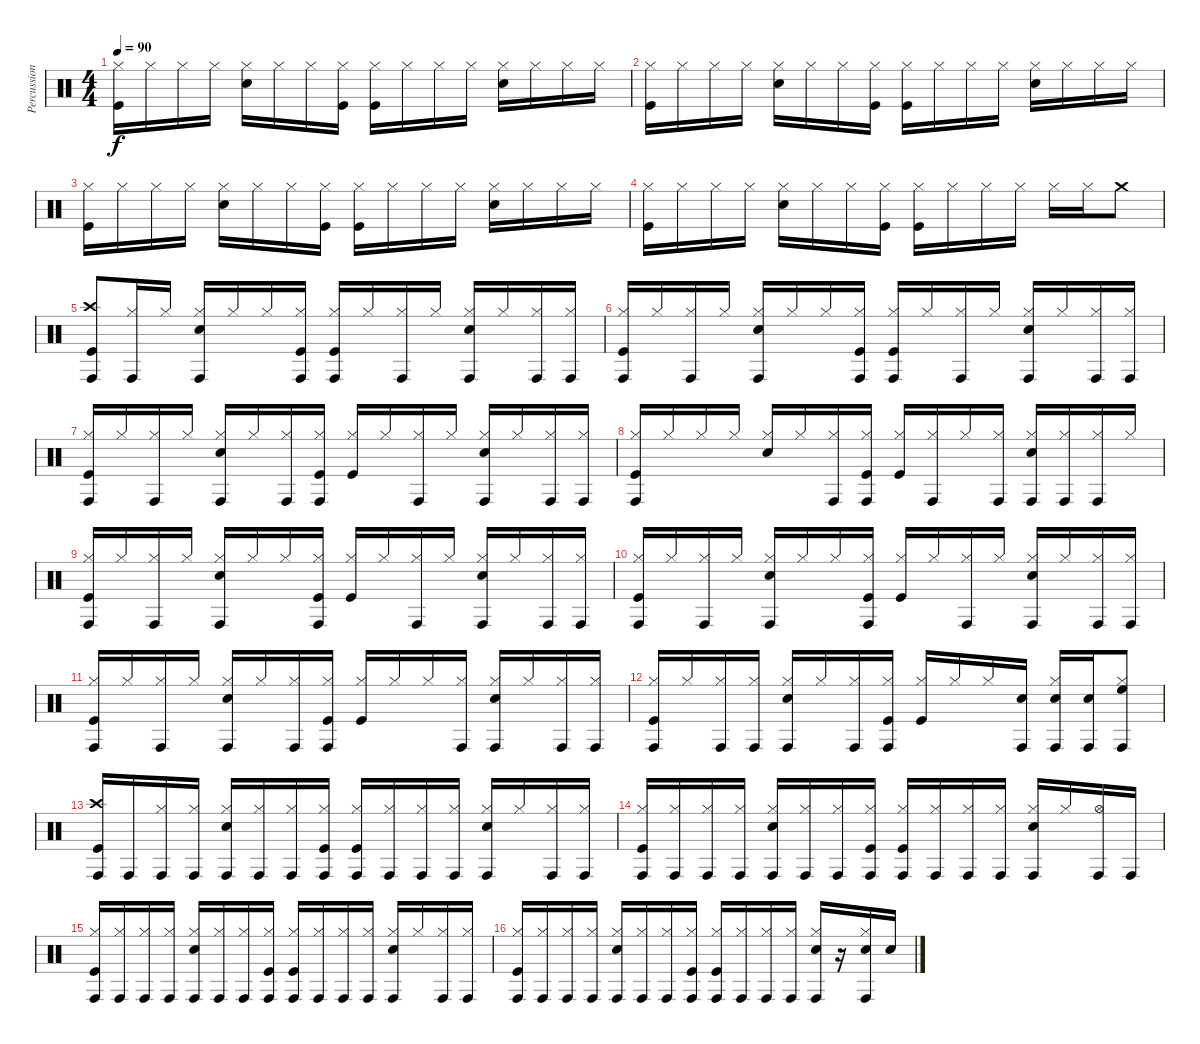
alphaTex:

\track ("Percussions" "Percussion") {instrument percussion}
\staff {score}
\articulation defaults
\ts (4 4)
\tempo 90
\clef neutral
\ks c
("Hi-Hat (closed)" "Kick (hit)").16{dy f} "Hi-Hat (closed)".16 "Hi-Hat (closed)".16 "Hi-Hat (closed)".16 ("Hi-Hat (closed)" "Electric Snare (hit)").16 "Hi-Hat (closed)".16 "Hi-Hat (closed)".16 ("Hi-Hat (closed)" "Kick (hit)").16 ("Hi-Hat (closed)" "Kick (hit)").16 "Hi-Hat (closed)".16 "Hi-Hat (closed)".16 "Hi-Hat (closed)".16 ("Hi-Hat (closed)" "Electric Snare (hit)").16 "Hi-Hat (closed)".16 "Hi-Hat (closed)".16 "Hi-Hat (closed)".16 |
("Hi-Hat (closed)" "Kick (hit)").16 "Hi-Hat (closed)".16 "Hi-Hat (closed)".16 "Hi-Hat (closed)".16 ("Hi-Hat (closed)" "Electric Snare (hit)").16 "Hi-Hat (closed)".16 "Hi-Hat (closed)".16 ("Hi-Hat (closed)" "Kick (hit)").16 ("Hi-Hat (closed)" "Kick (hit)").16 "Hi-Hat (closed)".16 "Hi-Hat (closed)".16 "Hi-Hat (closed)".16 ("Hi-Hat (closed)" "Electric Snare (hit)").16 "Hi-Hat (closed)".16 "Hi-Hat (closed)".16 "Hi-Hat (closed)".16 |
("Hi-Hat (closed)" "Kick (hit)").16 "Hi-Hat (closed)".16 "Hi-Hat (closed)".16 "Hi-Hat (closed)".16 ("Hi-Hat (closed)" "Electric Snare (hit)").16 "Hi-Hat (closed)".16 "Hi-Hat (closed)".16 ("Hi-Hat (closed)" "Kick (hit)").16 ("Hi-Hat (closed)" "Kick (hit)").16 "Hi-Hat (closed)".16 "Hi-Hat (closed)".16 "Hi-Hat (closed)".16 ("Hi-Hat (closed)" "Electric Snare (hit)").16 "Hi-Hat (closed)".16 "Hi-Hat (closed)".16 "Hi-Hat (closed)".16 |
("Hi-Hat (closed)" "Kick (hit)").16 "Hi-Hat (closed)".16 "Hi-Hat (closed)".16 "Hi-Hat (closed)".16 ("Hi-Hat (closed)" "Electric Snare (hit)").16 "Hi-Hat (closed)".16 "Hi-Hat (closed)".16 ("Hi-Hat (closed)" "Kick (hit)").16 ("Hi-Hat (closed)" "Kick (hit)").16 "Hi-Hat (closed)".16 "Hi-Hat (closed)".16 "Hi-Hat (closed)".16 "Hi-Hat (closed)".16 "Hi-Hat (closed)".16 "Crash medium (hit)".8 |
("Crash high (hit)" "Kick (hit)" "Conga high (hit)").8 ("Hi-Hat (closed)" "Conga high (hit)").16 "Hi-Hat (closed)".16 ("Hi-Hat (closed)" "Electric Snare (hit)" "Conga high (hit)").16 "Hi-Hat (closed)".16 "Hi-Hat (closed)".16 ("Hi-Hat (closed)" "Kick (hit)" "Conga high (hit)").16 ("Hi-Hat (closed)" "Kick (hit)" "Conga high (hit)").16 "Hi-Hat (closed)".16 ("Hi-Hat (closed)" "Conga high (hit)").16 "Hi-Hat (closed)".16 ("Hi-Hat (closed)" "Electric Snare (hit)" "Conga high (hit)").16 "Hi-Hat (closed)".16 ("Hi-Hat (closed)" "Conga high (hit)").16 ("Hi-Hat (closed)" "Conga high (hit)").16 |
("Hi-Hat (closed)" "Kick (hit)" "Conga high (hit)").16 "Hi-Hat (closed)".16 ("Hi-Hat (closed)" "Conga high (hit)").16 "Hi-Hat (closed)".16 ("Hi-Hat (closed)" "Electric Snare (hit)" "Conga high (hit)").16 "Hi-Hat (closed)".16 "Hi-Hat (closed)".16 ("Hi-Hat (closed)" "Kick (hit)" "Conga high (hit)").16 ("Hi-Hat (closed)" "Kick (hit)" "Conga high (hit)").16 "Hi-Hat (closed)".16 ("Hi-Hat (closed)" "Conga high (hit)").16 "Hi-Hat (closed)".16 ("Hi-Hat (closed)" "Electric Snare (hit)" "Conga high (hit)").16 "Hi-Hat (closed)".16 ("Hi-Hat (closed)" "Conga high (hit)").16 ("Hi-Hat (closed)" "Conga high (hit)").16 |
("Hi-Hat (closed)" "Kick (hit)" "Conga high (hit)").16 "Hi-Hat (closed)".16 ("Hi-Hat (closed)" "Conga high (hit)").16 "Hi-Hat (closed)".16 ("Hi-Hat (closed)" "Electric Snare (hit)" "Conga high (hit)").16 "Hi-Hat (closed)".16 ("Hi-Hat (closed)" "Conga high (hit)").16 ("Hi-Hat (closed)" "Kick (hit)" "Conga high (hit)").16 ("Hi-Hat (closed)" "Kick (hit)").16 "Hi-Hat (closed)".16 ("Hi-Hat (closed)" "Conga high (hit)").16 "Hi-Hat (closed)".16 ("Hi-Hat (closed)" "Electric Snare (hit)" "Conga high (hit)").16 "Hi-Hat (closed)".16 ("Hi-Hat (closed)" "Conga high (hit)").16 ("Hi-Hat (closed)" "Conga high (hit)").16 |
("Hi-Hat (closed)" "Kick (hit)" "Conga high (hit)").16 "Hi-Hat (closed)".16 "Hi-Hat (closed)".16 "Hi-Hat (closed)".16 ("Hi-Hat (closed)" "Electric Snare (hit)").16 "Hi-Hat (closed)".16 ("Hi-Hat (closed)" "Conga high (hit)").16 ("Hi-Hat (closed)" "Kick (hit)" "Conga high (hit)").16 ("Hi-Hat (closed)" "Kick (hit)").16 ("Hi-Hat (closed)" "Conga high (hit)").16 "Hi-Hat (closed)".16 ("Hi-Hat (closed)" "Conga high (hit)").16 ("Hi-Hat (closed)" "Electric Snare (hit)" "Conga high (hit)").16 ("Hi-Hat (closed)" "Conga high (hit)").16 ("Hi-Hat (closed)" "Conga high (hit)").16 "Hi-Hat (closed)".16 |
("Hi-Hat (closed)" "Kick (hit)" "Conga high (hit)").16 "Hi-Hat (closed)".16 ("Hi-Hat (closed)" "Conga high (hit)").16 "Hi-Hat (closed)".16 ("Hi-Hat (closed)" "Electric Snare (hit)" "Conga high (hit)").16 "Hi-Hat (closed)".16 "Hi-Hat (closed)".16 ("Hi-Hat (closed)" "Kick (hit)" "Conga high (hit)").16 ("Hi-Hat (closed)" "Kick (hit)").16 "Hi-Hat (closed)".16 ("Hi-Hat (closed)" "Conga high (hit)").16 "Hi-Hat (closed)".16 ("Hi-Hat (closed)" "Electric Snare (hit)" "Conga high (hit)").16 "Hi-Hat (closed)".16 ("Hi-Hat (closed)" "Conga high (hit)").16 ("Hi-Hat (closed)" "Conga high (hit)").16 |
("Hi-Hat (closed)" "Kick (hit)" "Conga high (hit)").16 "Hi-Hat (closed)".16 ("Hi-Hat (closed)" "Conga high (hit)").16 "Hi-Hat (closed)".16 ("Hi-Hat (closed)" "Electric Snare (hit)" "Conga high (hit)").16 "Hi-Hat (closed)".16 "Hi-Hat (closed)".16 ("Hi-Hat (closed)" "Kick (hit)" "Conga high (hit)").16 ("Hi-Hat (closed)" "Kick (hit)").16 "Hi-Hat (closed)".16 ("Hi-Hat (closed)" "Conga high (hit)").16 "Hi-Hat (closed)".16 ("Hi-Hat (closed)" "Electric Snare (hit)" "Conga high (hit)").16 "Hi-Hat (closed)".16 ("Hi-Hat (closed)" "Conga high (hit)").16 ("Hi-Hat (closed)" "Conga high (hit)").16 |
("Hi-Hat (closed)" "Kick (hit)" "Conga high (hit)").16 "Hi-Hat (closed)".16 ("Hi-Hat (closed)" "Conga high (hit)").16 "Hi-Hat (closed)".16 ("Hi-Hat (closed)" "Electric Snare (hit)" "Conga high (hit)").16 "Hi-Hat (closed)".16 ("Hi-Hat (closed)" "Conga high (hit)").16 ("Hi-Hat (closed)" "Kick (hit)" "Conga high (hit)").16 ("Hi-Hat (closed)" "Kick (hit)").16 "Hi-Hat (closed)".16 "Hi-Hat (closed)".16 ("Hi-Hat (closed)" "Conga high (hit)").16 ("Hi-Hat (closed)" "Electric Snare (hit)" "Conga high (hit)").16 "Hi-Hat (closed)".16 ("Hi-Hat (closed)" "Conga high (hit)").16 ("Hi-Hat (closed)" "Conga high (hit)").16 |
("Hi-Hat (closed)" "Kick (hit)" "Conga high (hit)").16 "Hi-Hat (closed)".16 ("Hi-Hat (closed)" "Conga high (hit)").16 ("Hi-Hat (closed)" "Conga high (hit)").16 ("Hi-Hat (closed)" "Electric Snare (hit)" "Conga high (hit)").16 "Hi-Hat (closed)".16 ("Hi-Hat (closed)" "Conga high (hit)").16 ("Hi-Hat (closed)" "Kick (hit)" "Conga high (hit)").16 ("Hi-Hat (closed)" "Kick (hit)").16 "Hi-Hat (closed)".16 "Hi-Hat (closed)".16 ("Electric Snare (hit)" "Conga high (hit)").16 ("Hi-Hat (closed)" "Electric Snare (hit)" "Conga high (hit)").16 ("Electric Snare (hit)" "Conga high (hit)").16 ("Hi-Hat (closed)" "High Floor Tom (hit)" "Conga high (hit)").8 |
("Crash high (hit)" "Kick (hit)" "Conga high (hit)").16 "Conga high (hit)".16 ("Hi-Hat (closed)" "Conga high (hit)").16 ("Hi-Hat (closed)" "Conga high (hit)").16 ("Hi-Hat (closed)" "Electric Snare (hit)" "Conga high (hit)").16 ("Hi-Hat (closed)" "Conga high (hit)").16 ("Hi-Hat (closed)" "Conga high (hit)").16 ("Hi-Hat (closed)" "Kick (hit)" "Conga high (hit)").16 ("Hi-Hat (closed)" "Kick (hit)" "Conga high (hit)").16 ("Hi-Hat (closed)" "Conga high (hit)").16 ("Hi-Hat (closed)" "Conga high (hit)").16 ("Hi-Hat (closed)" "Conga high (hit)").16 ("Hi-Hat (closed)" "Electric Snare (hit)" "Conga high (hit)").16 "Hi-Hat (closed)".16 ("Hi-Hat (closed)" "Conga high (hit)").16 ("Hi-Hat (closed)" "Conga high (hit)").16 |
("Hi-Hat (closed)" "Kick (hit)" "Conga high (hit)").16 ("Hi-Hat (closed)" "Conga high (hit)").16 ("Hi-Hat (closed)" "Conga high (hit)").16 ("Hi-Hat (closed)" "Conga high (hit)").16 ("Hi-Hat (closed)" "Electric Snare (hit)" "Conga high (hit)").16 ("Hi-Hat (closed)" "Conga high (hit)").16 ("Hi-Hat (closed)" "Conga high (hit)").16 ("Hi-Hat (closed)" "Kick (hit)" "Conga high (hit)").16 ("Hi-Hat (closed)" "Kick (hit)" "Conga high (hit)").16 ("Hi-Hat (closed)" "Conga high (hit)").16 ("Hi-Hat (closed)" "Conga high (hit)").16 ("Hi-Hat (closed)" "Conga high (hit)").16 ("Hi-Hat (closed)" "Electric Snare (hit)" "Conga high (hit)").16 "Hi-Hat (closed)".16 ("Hi-Hat (open)" "Conga high (hit)").16 "Conga high (hit)".16 |
("Hi-Hat (closed)" "Kick (hit)" "Conga high (hit)").16 ("Hi-Hat (closed)" "Conga high (hit)").16 ("Hi-Hat (closed)" "Conga high (hit)").16 ("Hi-Hat (closed)" "Conga high (hit)").16 ("Hi-Hat (closed)" "Electric Snare (hit)" "Conga high (hit)").16 ("Hi-Hat (closed)" "Conga high (hit)").16 ("Hi-Hat (closed)" "Conga high (hit)").16 ("Hi-Hat (closed)" "Kick (hit)" "Conga high (hit)").16 ("Hi-Hat (closed)" "Kick (hit)" "Conga high (hit)").16 ("Hi-Hat (closed)" "Conga high (hit)").16 ("Hi-Hat (closed)" "Conga high (hit)").16 ("Hi-Hat (closed)" "Conga high (hit)").16 ("Hi-Hat (closed)" "Electric Snare (hit)" "Conga high (hit)").16 "Hi-Hat (closed)".16 ("Hi-Hat (closed)" "Conga high (hit)").16 ("Hi-Hat (closed)" "Conga high (hit)").16 |
("Hi-Hat (closed)" "Kick (hit)" "Conga high (hit)").16 ("Hi-Hat (closed)" "Conga high (hit)").16 ("Hi-Hat (closed)" "Conga high (hit)").16 ("Hi-Hat (closed)" "Conga high (hit)").16 ("Hi-Hat (closed)" "Electric Snare (hit)" "Conga high (hit)").16 ("Hi-Hat (closed)" "Conga high (hit)").16 ("Hi-Hat (closed)" "Conga high (hit)").16 ("Hi-Hat (closed)" "Kick (hit)" "Conga high (hit)").16 ("Hi-Hat (closed)" "Kick (hit)" "Conga high (hit)").16 ("Hi-Hat (closed)" "Conga high (hit)").16 ("Hi-Hat (closed)" "Conga high (hit)").16 ("Hi-Hat (closed)" "Conga high (hit)").16 ("Hi-Hat (closed)" "Electric Snare (hit)" "Conga high (hit)").16 r.16 ("Hi-Hat (closed)" "Electric Snare (hit)" "Conga high (hit)").16 "Electric Snare (hit)".16
